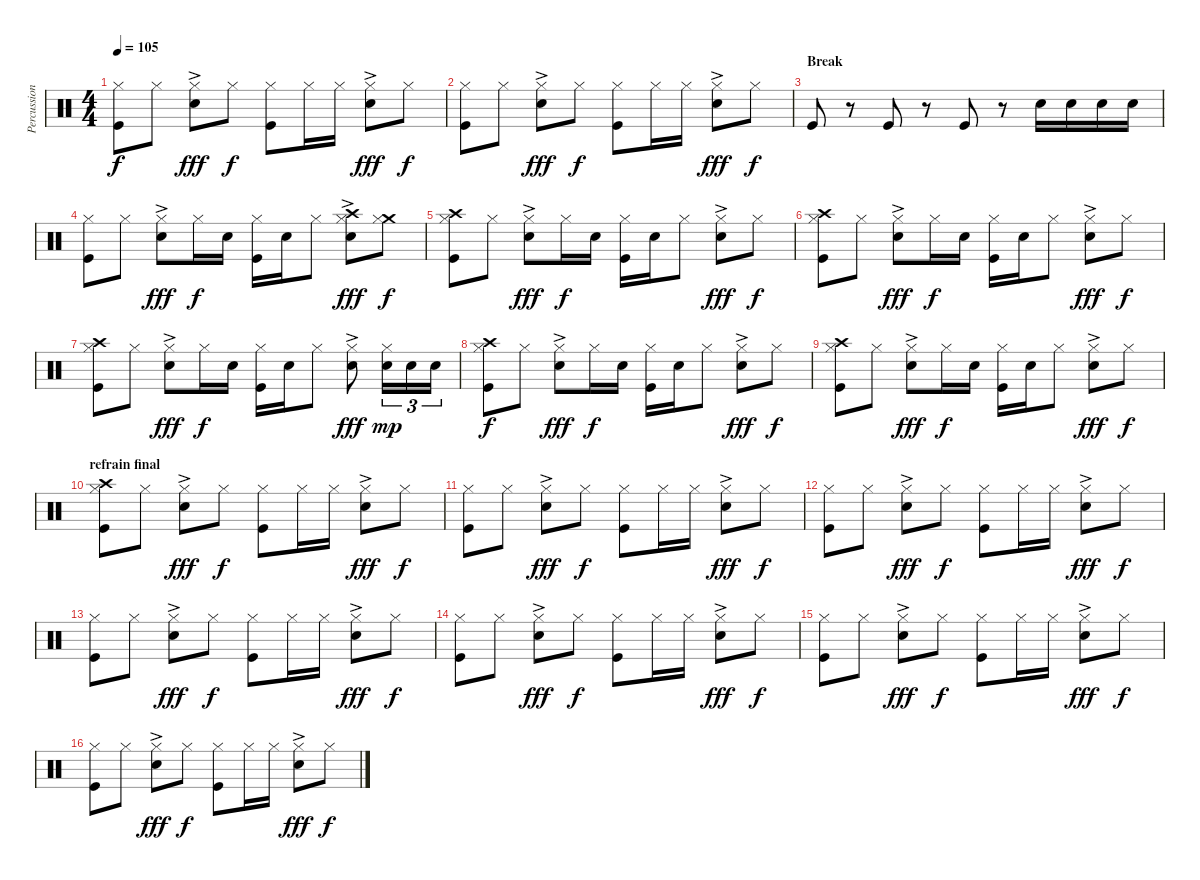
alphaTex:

\track ("Percussions" "Percussion") {instrument percussion}
\staff {score}
\articulation defaults
\ts (4 4)
\tempo 105
\clef neutral
\ks c
("Kick (hit)" "Hi-Hat (closed)").8{dy f} "Hi-Hat (closed)".8 ("Electric Snare (hit)"{ac} "Hi-Hat (closed)").8{dy fff} "Hi-Hat (closed)".8{dy f} ("Kick (hit)" "Hi-Hat (closed)").8 "Hi-Hat (closed)".16 "Hi-Hat (closed)".16 ("Electric Snare (hit)"{ac} "Hi-Hat (closed)").8{dy fff} "Hi-Hat (closed)".8{dy f} |
("Kick (hit)" "Hi-Hat (closed)").8 "Hi-Hat (closed)".8 ("Electric Snare (hit)"{ac} "Hi-Hat (closed)").8{dy fff} "Hi-Hat (closed)".8{dy f} ("Kick (hit)" "Hi-Hat (closed)").8 "Hi-Hat (closed)".16 "Hi-Hat (closed)".16 ("Electric Snare (hit)"{ac} "Hi-Hat (closed)").8{dy fff} "Hi-Hat (closed)".8{dy f} |
\section ("" "Break")
"Kick (hit)".8 r.8 "Kick (hit)".8 r.8 "Kick (hit)".8 r.8 "Electric Snare (hit)".16 "Electric Snare (hit)".16 "Electric Snare (hit)".16 "Electric Snare (hit)".16 |
("Kick (hit)" "Hi-Hat (closed)").8 "Hi-Hat (closed)".8 ("Electric Snare (hit)"{ac} "Hi-Hat (closed)").8{dy fff} "Hi-Hat (closed)".16{dy f} "Electric Snare (hit)".16 ("Kick (hit)" "Hi-Hat (closed)").16 "Electric Snare (hit)".16 "Hi-Hat (closed)".8 ("Electric Snare (hit)"{ac} "Crash high (hit)" "Hi-Hat (closed)").8{dy fff} ("Crash medium (hit)" "Hi-Hat (closed)").8{dy f} |
("Kick (hit)" "Crash high (hit)" "Hi-Hat (closed)").8 "Hi-Hat (closed)".8 ("Electric Snare (hit)"{ac} "Hi-Hat (closed)").8{dy fff} "Hi-Hat (closed)".16{dy f} "Electric Snare (hit)".16 ("Kick (hit)" "Hi-Hat (closed)").16 "Electric Snare (hit)".16 "Hi-Hat (closed)".8 ("Electric Snare (hit)"{ac} "Hi-Hat (closed)").8{dy fff} "Hi-Hat (closed)".8{dy f} |
("Kick (hit)" "Crash high (hit)" "Hi-Hat (closed)").8 "Hi-Hat (closed)".8 ("Electric Snare (hit)"{ac} "Hi-Hat (closed)").8{dy fff} "Hi-Hat (closed)".16{dy f} "Electric Snare (hit)".16 ("Kick (hit)" "Hi-Hat (closed)").16 "Electric Snare (hit)".16 "Hi-Hat (closed)".8 ("Electric Snare (hit)"{ac} "Hi-Hat (closed)").8{dy fff} "Hi-Hat (closed)".8{dy f} |
("Kick (hit)" "Crash high (hit)" "Hi-Hat (closed)").8 "Hi-Hat (closed)".8 ("Electric Snare (hit)"{ac} "Hi-Hat (closed)").8{dy fff} "Hi-Hat (closed)".16{dy f} "Electric Snare (hit)".16 ("Kick (hit)" "Hi-Hat (closed)").16 "Electric Snare (hit)".16 "Hi-Hat (closed)".8 ("Electric Snare (hit)"{ac} "Hi-Hat (closed)").8{dy fff} ("Electric Snare (hit)" "Hi-Hat (closed)").16{tu (3 2) dy mp} "Electric Snare (hit)".16{tu (3 2)} "Electric Snare (hit)".16{tu (3 2)} |
("Kick (hit)" "Crash high (hit)" "Hi-Hat (closed)").8{dy f} "Hi-Hat (closed)".8 ("Electric Snare (hit)"{ac} "Hi-Hat (closed)").8{dy fff} "Hi-Hat (closed)".16{dy f} "Electric Snare (hit)".16 ("Kick (hit)" "Hi-Hat (closed)").16 "Electric Snare (hit)".16 "Hi-Hat (closed)".8 ("Electric Snare (hit)"{ac} "Hi-Hat (closed)").8{dy fff} "Hi-Hat (closed)".8{dy f} |
("Kick (hit)" "Crash high (hit)" "Hi-Hat (closed)").8 "Hi-Hat (closed)".8 ("Electric Snare (hit)"{ac} "Hi-Hat (closed)").8{dy fff} "Hi-Hat (closed)".16{dy f} "Electric Snare (hit)".16 ("Kick (hit)" "Hi-Hat (closed)").16 "Electric Snare (hit)".16 "Hi-Hat (closed)".8 ("Electric Snare (hit)"{ac} "Hi-Hat (closed)").8{dy fff} "Hi-Hat (closed)".8{dy f} |
\section ("" "refrain final")
("Kick (hit)" "Crash high (hit)" "Hi-Hat (closed)").8 "Hi-Hat (closed)".8 ("Electric Snare (hit)"{ac} "Hi-Hat (closed)").8{dy fff} "Hi-Hat (closed)".8{dy f} ("Kick (hit)" "Hi-Hat (closed)").8 "Hi-Hat (closed)".16 "Hi-Hat (closed)".16 ("Electric Snare (hit)"{ac} "Hi-Hat (closed)").8{dy fff} "Hi-Hat (closed)".8{dy f} |
("Kick (hit)" "Hi-Hat (closed)").8 "Hi-Hat (closed)".8 ("Electric Snare (hit)"{ac} "Hi-Hat (closed)").8{dy fff} "Hi-Hat (closed)".8{dy f} ("Kick (hit)" "Hi-Hat (closed)").8 "Hi-Hat (closed)".16 "Hi-Hat (closed)".16 ("Electric Snare (hit)"{ac} "Hi-Hat (closed)").8{dy fff} "Hi-Hat (closed)".8{dy f} |
("Kick (hit)" "Hi-Hat (closed)").8 "Hi-Hat (closed)".8 ("Electric Snare (hit)"{ac} "Hi-Hat (closed)").8{dy fff} "Hi-Hat (closed)".8{dy f} ("Kick (hit)" "Hi-Hat (closed)").8 "Hi-Hat (closed)".16 "Hi-Hat (closed)".16 ("Electric Snare (hit)"{ac} "Hi-Hat (closed)").8{dy fff} "Hi-Hat (closed)".8{dy f} |
("Kick (hit)" "Hi-Hat (closed)").8 "Hi-Hat (closed)".8 ("Electric Snare (hit)"{ac} "Hi-Hat (closed)").8{dy fff} "Hi-Hat (closed)".8{dy f} ("Kick (hit)" "Hi-Hat (closed)").8 "Hi-Hat (closed)".16 "Hi-Hat (closed)".16 ("Electric Snare (hit)"{ac} "Hi-Hat (closed)").8{dy fff} "Hi-Hat (closed)".8{dy f} |
("Kick (hit)" "Hi-Hat (closed)").8 "Hi-Hat (closed)".8 ("Electric Snare (hit)"{ac} "Hi-Hat (closed)").8{dy fff} "Hi-Hat (closed)".8{dy f} ("Kick (hit)" "Hi-Hat (closed)").8 "Hi-Hat (closed)".16 "Hi-Hat (closed)".16 ("Electric Snare (hit)"{ac} "Hi-Hat (closed)").8{dy fff} "Hi-Hat (closed)".8{dy f} |
("Kick (hit)" "Hi-Hat (closed)").8 "Hi-Hat (closed)".8 ("Electric Snare (hit)"{ac} "Hi-Hat (closed)").8{dy fff} "Hi-Hat (closed)".8{dy f} ("Kick (hit)" "Hi-Hat (closed)").8 "Hi-Hat (closed)".16 "Hi-Hat (closed)".16 ("Electric Snare (hit)"{ac} "Hi-Hat (closed)").8{dy fff} "Hi-Hat (closed)".8{dy f} |
("Kick (hit)" "Hi-Hat (closed)").8 "Hi-Hat (closed)".8 ("Electric Snare (hit)"{ac} "Hi-Hat (closed)").8{dy fff} "Hi-Hat (closed)".8{dy f} ("Kick (hit)" "Hi-Hat (closed)").8 "Hi-Hat (closed)".16 "Hi-Hat (closed)".16 ("Electric Snare (hit)"{ac} "Hi-Hat (closed)").8{dy fff} "Hi-Hat (closed)".8{dy f}
